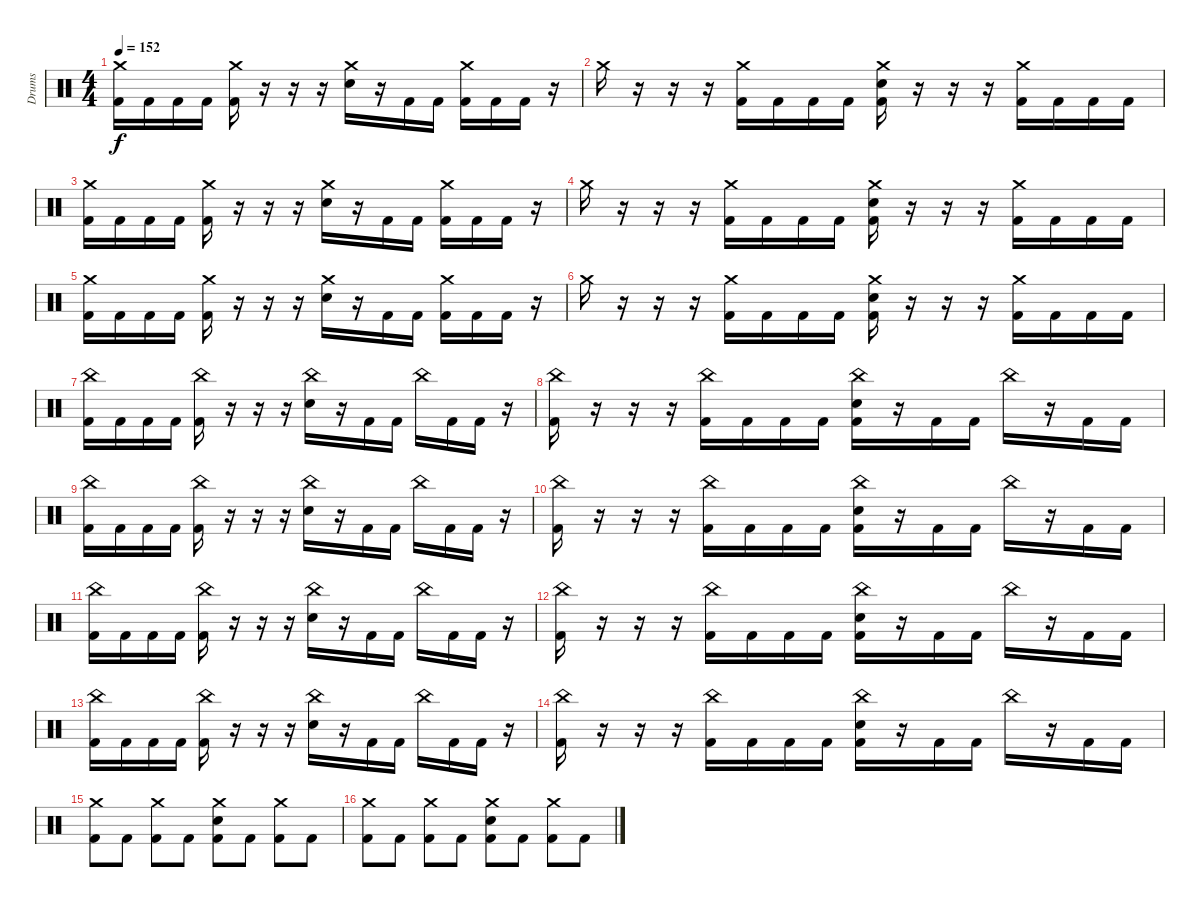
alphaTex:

\track ("Drums" "Drums") {instrument percussion}
\staff {score}
\articulation defaults
\ts (4 4)
\tempo 152
\clef neutral
\ks c
("Crash medium (hit)" "Kick (hit) 2").16{dy f} "Kick (hit) 2".16 "Kick (hit) 2".16 "Kick (hit) 2".16 ("Crash medium (hit)" "Kick (hit) 2").16 r.16 r.16 r.16 ("Crash medium (hit)" "Electric Snare (hit)").16 r.16 "Kick (hit) 2".16 "Kick (hit) 2".16 ("Crash medium (hit)" "Kick (hit) 2").16 "Kick (hit) 2".16 "Kick (hit) 2".16 r.16 |
"Crash medium (hit)".16 r.16 r.16 r.16 ("Crash medium (hit)" "Kick (hit) 2").16 "Kick (hit) 2".16 "Kick (hit) 2".16 "Kick (hit) 2".16 ("Crash medium (hit)" "Electric Snare (hit)" "Kick (hit) 2").16 r.16 r.16 r.16 ("Crash medium (hit)" "Kick (hit) 2").16 "Kick (hit) 2".16 "Kick (hit) 2".16 "Kick (hit) 2".16 |
("Crash medium (hit)" "Kick (hit) 2").16 "Kick (hit) 2".16 "Kick (hit) 2".16 "Kick (hit) 2".16 ("Crash medium (hit)" "Kick (hit) 2").16 r.16 r.16 r.16 ("Crash medium (hit)" "Electric Snare (hit)").16 r.16 "Kick (hit) 2".16 "Kick (hit) 2".16 ("Crash medium (hit)" "Kick (hit) 2").16 "Kick (hit) 2".16 "Kick (hit) 2".16 r.16 |
"Crash medium (hit)".16 r.16 r.16 r.16 ("Crash medium (hit)" "Kick (hit) 2").16 "Kick (hit) 2".16 "Kick (hit) 2".16 "Kick (hit) 2".16 ("Crash medium (hit)" "Electric Snare (hit)" "Kick (hit) 2").16 r.16 r.16 r.16 ("Crash medium (hit)" "Kick (hit) 2").16 "Kick (hit) 2".16 "Kick (hit) 2".16 "Kick (hit) 2".16 |
("Crash medium (hit)" "Kick (hit) 2").16 "Kick (hit) 2".16 "Kick (hit) 2".16 "Kick (hit) 2".16 ("Crash medium (hit)" "Kick (hit) 2").16 r.16 r.16 r.16 ("Crash medium (hit)" "Electric Snare (hit)").16 r.16 "Kick (hit) 2".16 "Kick (hit) 2".16 ("Crash medium (hit)" "Kick (hit) 2").16 "Kick (hit) 2".16 "Kick (hit) 2".16 r.16 |
"Crash medium (hit)".16 r.16 r.16 r.16 ("Crash medium (hit)" "Kick (hit) 2").16 "Kick (hit) 2".16 "Kick (hit) 2".16 "Kick (hit) 2".16 ("Crash medium (hit)" "Electric Snare (hit)" "Kick (hit) 2").16 r.16 r.16 r.16 ("Crash medium (hit)" "Kick (hit) 2").16 "Kick (hit) 2".16 "Kick (hit) 2".16 "Kick (hit) 2".16 |
("China (hit)" "Kick (hit) 2").16 "Kick (hit) 2".16 "Kick (hit) 2".16 "Kick (hit) 2".16 ("China (hit)" "Kick (hit) 2").16 r.16 r.16 r.16 ("China (hit)" "Electric Snare (hit)").16 r.16 "Kick (hit) 2".16 "Kick (hit) 2".16 "China (hit)".16 "Kick (hit) 2".16 "Kick (hit) 2".16 r.16 |
("China (hit)" "Kick (hit) 2").16 r.16 r.16 r.16 ("China (hit)" "Kick (hit) 2").16 "Kick (hit) 2".16 "Kick (hit) 2".16 "Kick (hit) 2".16 ("China (hit)" "Electric Snare (hit)" "Kick (hit) 2").16 r.16 "Kick (hit) 2".16 "Kick (hit) 2".16 "China (hit)".16 r.16 "Kick (hit) 2".16 "Kick (hit) 2".16 |
("China (hit)" "Kick (hit) 2").16 "Kick (hit) 2".16 "Kick (hit) 2".16 "Kick (hit) 2".16 ("China (hit)" "Kick (hit) 2").16 r.16 r.16 r.16 ("China (hit)" "Electric Snare (hit)").16 r.16 "Kick (hit) 2".16 "Kick (hit) 2".16 "China (hit)".16 "Kick (hit) 2".16 "Kick (hit) 2".16 r.16 |
("China (hit)" "Kick (hit) 2").16 r.16 r.16 r.16 ("China (hit)" "Kick (hit) 2").16 "Kick (hit) 2".16 "Kick (hit) 2".16 "Kick (hit) 2".16 ("China (hit)" "Electric Snare (hit)" "Kick (hit) 2").16 r.16 "Kick (hit) 2".16 "Kick (hit) 2".16 "China (hit)".16 r.16 "Kick (hit) 2".16 "Kick (hit) 2".16 |
("China (hit)" "Kick (hit) 2").16 "Kick (hit) 2".16 "Kick (hit) 2".16 "Kick (hit) 2".16 ("China (hit)" "Kick (hit) 2").16 r.16 r.16 r.16 ("China (hit)" "Electric Snare (hit)").16 r.16 "Kick (hit) 2".16 "Kick (hit) 2".16 "China (hit)".16 "Kick (hit) 2".16 "Kick (hit) 2".16 r.16 |
("China (hit)" "Kick (hit) 2").16 r.16 r.16 r.16 ("China (hit)" "Kick (hit) 2").16 "Kick (hit) 2".16 "Kick (hit) 2".16 "Kick (hit) 2".16 ("China (hit)" "Electric Snare (hit)" "Kick (hit) 2").16 r.16 "Kick (hit) 2".16 "Kick (hit) 2".16 "China (hit)".16 r.16 "Kick (hit) 2".16 "Kick (hit) 2".16 |
("China (hit)" "Kick (hit) 2").16 "Kick (hit) 2".16 "Kick (hit) 2".16 "Kick (hit) 2".16 ("China (hit)" "Kick (hit) 2").16 r.16 r.16 r.16 ("China (hit)" "Electric Snare (hit)").16 r.16 "Kick (hit) 2".16 "Kick (hit) 2".16 "China (hit)".16 "Kick (hit) 2".16 "Kick (hit) 2".16 r.16 |
("China (hit)" "Kick (hit) 2").16 r.16 r.16 r.16 ("China (hit)" "Kick (hit) 2").16 "Kick (hit) 2".16 "Kick (hit) 2".16 "Kick (hit) 2".16 ("China (hit)" "Electric Snare (hit)" "Kick (hit) 2").16 r.16 "Kick (hit) 2".16 "Kick (hit) 2".16 "China (hit)".16 r.16 "Kick (hit) 2".16 "Kick (hit) 2".16 |
("Crash medium (hit)" "Kick (hit) 2").8 "Kick (hit) 2".8 ("Crash medium (hit)" "Kick (hit) 2").8 "Kick (hit) 2".8 ("Crash medium (hit)" "Electric Snare (hit)" "Kick (hit) 2").8 "Kick (hit) 2".8 ("Crash medium (hit)" "Kick (hit) 2").8 "Kick (hit) 2".8 |
("Crash medium (hit)" "Kick (hit) 2").8 "Kick (hit) 2".8 ("Crash medium (hit)" "Kick (hit) 2").8 "Kick (hit) 2".8 ("Crash medium (hit)" "Electric Snare (hit)" "Kick (hit) 2").8 "Kick (hit) 2".8 ("Crash medium (hit)" "Kick (hit) 2").8 "Kick (hit) 2".8
